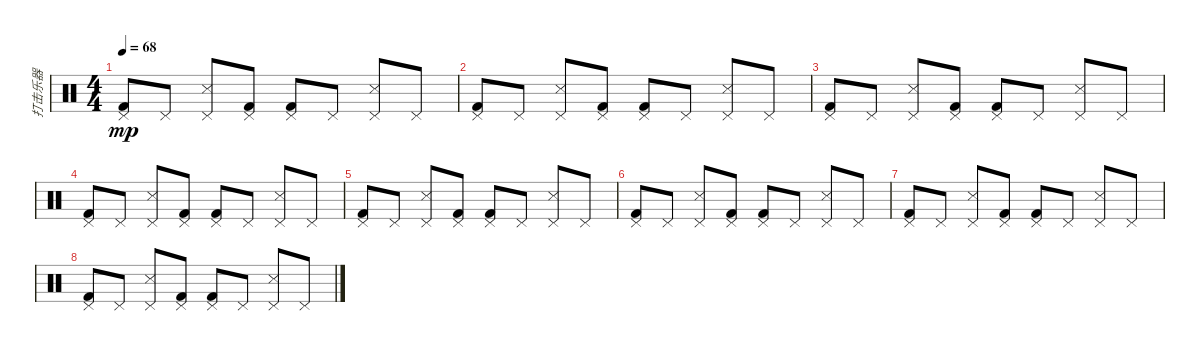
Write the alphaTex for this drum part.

\track ("打击乐器" "打击乐器") {instrument percussion}
\staff {score}
\articulation defaults
\ts (4 4)
\tempo 68
\clef neutral
\ks c
("Pedal Hi-Hat (hit)" "Kick (hit) 2").8{dy mp} "Pedal Hi-Hat (hit)".8 ("Pedal Hi-Hat (hit)" "Snare (side stick) 3").8 ("Pedal Hi-Hat (hit)" "Kick (hit) 2").8 ("Pedal Hi-Hat (hit)" "Kick (hit) 2").8 "Pedal Hi-Hat (hit)".8 ("Pedal Hi-Hat (hit)" "Snare (side stick) 3").8 "Pedal Hi-Hat (hit)".8 |
("Pedal Hi-Hat (hit)" "Kick (hit) 2").8 "Pedal Hi-Hat (hit)".8 ("Pedal Hi-Hat (hit)" "Snare (side stick) 3").8 ("Pedal Hi-Hat (hit)" "Kick (hit) 2").8 ("Pedal Hi-Hat (hit)" "Kick (hit) 2").8 "Pedal Hi-Hat (hit)".8 ("Pedal Hi-Hat (hit)" "Snare (side stick) 3").8 "Pedal Hi-Hat (hit)".8 |
("Pedal Hi-Hat (hit)" "Kick (hit) 2").8 "Pedal Hi-Hat (hit)".8 ("Pedal Hi-Hat (hit)" "Snare (side stick) 3").8 ("Pedal Hi-Hat (hit)" "Kick (hit) 2").8 ("Pedal Hi-Hat (hit)" "Kick (hit) 2").8 "Pedal Hi-Hat (hit)".8 ("Pedal Hi-Hat (hit)" "Snare (side stick) 3").8 "Pedal Hi-Hat (hit)".8 |
("Pedal Hi-Hat (hit)" "Kick (hit) 2").8 "Pedal Hi-Hat (hit)".8 ("Pedal Hi-Hat (hit)" "Snare (side stick) 3").8 ("Pedal Hi-Hat (hit)" "Kick (hit) 2").8 ("Pedal Hi-Hat (hit)" "Kick (hit) 2").8 "Pedal Hi-Hat (hit)".8 ("Pedal Hi-Hat (hit)" "Snare (side stick) 3").8 "Pedal Hi-Hat (hit)".8 |
("Pedal Hi-Hat (hit)" "Kick (hit) 2").8 "Pedal Hi-Hat (hit)".8 ("Pedal Hi-Hat (hit)" "Snare (side stick) 3").8 ("Pedal Hi-Hat (hit)" "Kick (hit) 2").8 ("Pedal Hi-Hat (hit)" "Kick (hit) 2").8 "Pedal Hi-Hat (hit)".8 ("Pedal Hi-Hat (hit)" "Snare (side stick) 3").8 "Pedal Hi-Hat (hit)".8 |
("Pedal Hi-Hat (hit)" "Kick (hit) 2").8 "Pedal Hi-Hat (hit)".8 ("Pedal Hi-Hat (hit)" "Snare (side stick) 3").8 ("Pedal Hi-Hat (hit)" "Kick (hit) 2").8 ("Pedal Hi-Hat (hit)" "Kick (hit) 2").8 "Pedal Hi-Hat (hit)".8 ("Pedal Hi-Hat (hit)" "Snare (side stick) 3").8 "Pedal Hi-Hat (hit)".8 |
("Pedal Hi-Hat (hit)" "Kick (hit) 2").8 "Pedal Hi-Hat (hit)".8 ("Pedal Hi-Hat (hit)" "Snare (side stick) 3").8 ("Pedal Hi-Hat (hit)" "Kick (hit) 2").8 ("Pedal Hi-Hat (hit)" "Kick (hit) 2").8 "Pedal Hi-Hat (hit)".8 ("Pedal Hi-Hat (hit)" "Snare (side stick) 3").8 "Pedal Hi-Hat (hit)".8 |
("Pedal Hi-Hat (hit)" "Kick (hit) 2").8 "Pedal Hi-Hat (hit)".8 ("Pedal Hi-Hat (hit)" "Snare (side stick) 3").8 ("Pedal Hi-Hat (hit)" "Kick (hit) 2").8 ("Pedal Hi-Hat (hit)" "Kick (hit) 2").8 "Pedal Hi-Hat (hit)".8 ("Pedal Hi-Hat (hit)" "Snare (side stick) 3").8 "Pedal Hi-Hat (hit)".8
